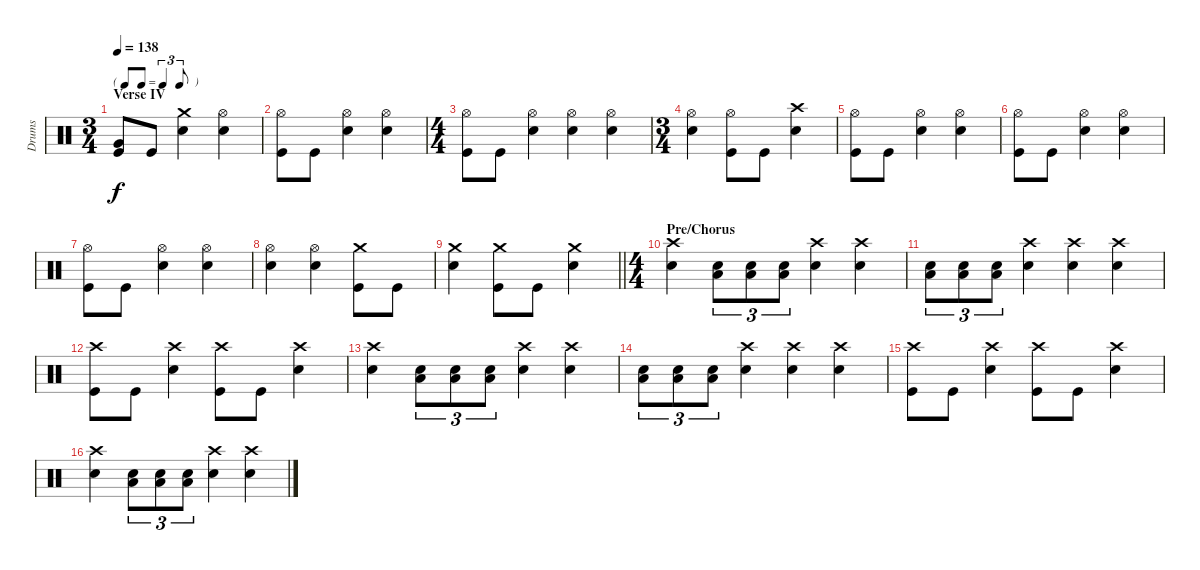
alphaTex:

\track ("Drums" "Drums") {instrument percussion}
\staff {score}
\articulation defaults
\ts (3 4)
\tf triplet8th
\section ("" "Verse IV")
\tempo 138
\clef neutral
\ks c
("Very Low Tom (hit)" "Kick (hit)").8{dy f} "Kick (hit)".8 ("Crash medium (hit)" "Snare (hit) 2").4 ("Hi-Hat (open)" "Snare (hit) 2").4 |
("Hi-Hat (open)" "Kick (hit)").8 "Kick (hit)".8 ("Hi-Hat (open)" "Snare (hit) 2").4 ("Hi-Hat (open)" "Snare (hit) 2").4 |
\ts (4 4)
("Hi-Hat (open)" "Kick (hit)").8 "Kick (hit)".8 ("Hi-Hat (open)" "Snare (hit) 2").4 ("Hi-Hat (open)" "Snare (hit) 2").4 ("Hi-Hat (open)" "Snare (hit) 2").4 |
\ts (3 4)
("Hi-Hat (open)" "Snare (hit) 2").4 ("Hi-Hat (open)" "Kick (hit)").8 "Kick (hit)".8 ("Crash high (hit)" "Snare (hit) 2").4 |
("Hi-Hat (open)" "Kick (hit)").8 "Kick (hit)".8 ("Hi-Hat (open)" "Snare (hit) 2").4 ("Hi-Hat (open)" "Snare (hit) 2").4 |
("Hi-Hat (open)" "Kick (hit)").8 "Kick (hit)".8 ("Hi-Hat (open)" "Snare (hit) 2").4 ("Hi-Hat (open)" "Snare (hit) 2").4 |
("Hi-Hat (open)" "Kick (hit)").8 "Kick (hit)".8 ("Hi-Hat (open)" "Snare (hit) 2").4 ("Hi-Hat (open)" "Snare (hit) 2").4 |
("Hi-Hat (open)" "Snare (hit) 2").4 ("Hi-Hat (open)" "Snare (hit) 2").4 ("Crash medium (hit)" "Kick (hit)").8 "Kick (hit)".8 |
\barLineRight lightlight
("Crash medium (hit)" "Snare (hit) 2").4 ("Crash medium (hit)" "Kick (hit)").8 "Kick (hit)".8 ("Crash medium (hit)" "Snare (hit) 2").4 |
\ts (4 4)
\section ("" "Pre/Chorus")
("Crash high (hit)" "Snare (hit) 2").4 ("Low Tom (hit)" "Snare (hit) 2").8{tu (3 2)} ("Low Tom (hit)" "Snare (hit) 2").8{tu (3 2)} ("Low Tom (hit)" "Snare (hit) 2").8{tu (3 2)} ("Crash high (hit)" "Snare (hit) 2").4 ("Crash high (hit)" "Snare (hit) 2").4 |
("Low Tom (hit)" "Snare (hit) 2").8{tu (3 2)} ("Low Tom (hit)" "Snare (hit) 2").8{tu (3 2)} ("Low Tom (hit)" "Snare (hit) 2").8{tu (3 2)} ("Crash high (hit)" "Snare (hit) 2").4 ("Crash high (hit)" "Snare (hit) 2").4 ("Crash high (hit)" "Snare (hit) 2").4 |
("Crash high (hit)" "Kick (hit)").8 "Kick (hit)".8 ("Crash high (hit)" "Snare (hit) 2").4 ("Crash high (hit)" "Kick (hit)").8 "Kick (hit)".8 ("Crash high (hit)" "Snare (hit) 2").4 |
("Crash high (hit)" "Snare (hit) 2").4 ("Low Tom (hit)" "Snare (hit) 2").8{tu (3 2)} ("Low Tom (hit)" "Snare (hit) 2").8{tu (3 2)} ("Low Tom (hit)" "Snare (hit) 2").8{tu (3 2)} ("Crash high (hit)" "Snare (hit) 2").4 ("Crash high (hit)" "Snare (hit) 2").4 |
("Low Tom (hit)" "Snare (hit) 2").8{tu (3 2)} ("Low Tom (hit)" "Snare (hit) 2").8{tu (3 2)} ("Low Tom (hit)" "Snare (hit) 2").8{tu (3 2)} ("Crash high (hit)" "Snare (hit) 2").4 ("Crash high (hit)" "Snare (hit) 2").4 ("Crash high (hit)" "Snare (hit) 2").4 |
("Crash high (hit)" "Kick (hit)").8 "Kick (hit)".8 ("Crash high (hit)" "Snare (hit) 2").4 ("Crash high (hit)" "Kick (hit)").8 "Kick (hit)".8 ("Crash high (hit)" "Snare (hit) 2").4 |
("Crash high (hit)" "Snare (hit) 2").4 ("Low Tom (hit)" "Snare (hit) 2").8{tu (3 2)} ("Low Tom (hit)" "Snare (hit) 2").8{tu (3 2)} ("Low Tom (hit)" "Snare (hit) 2").8{tu (3 2)} ("Crash high (hit)" "Snare (hit) 2").4 ("Crash high (hit)" "Snare (hit) 2").4
